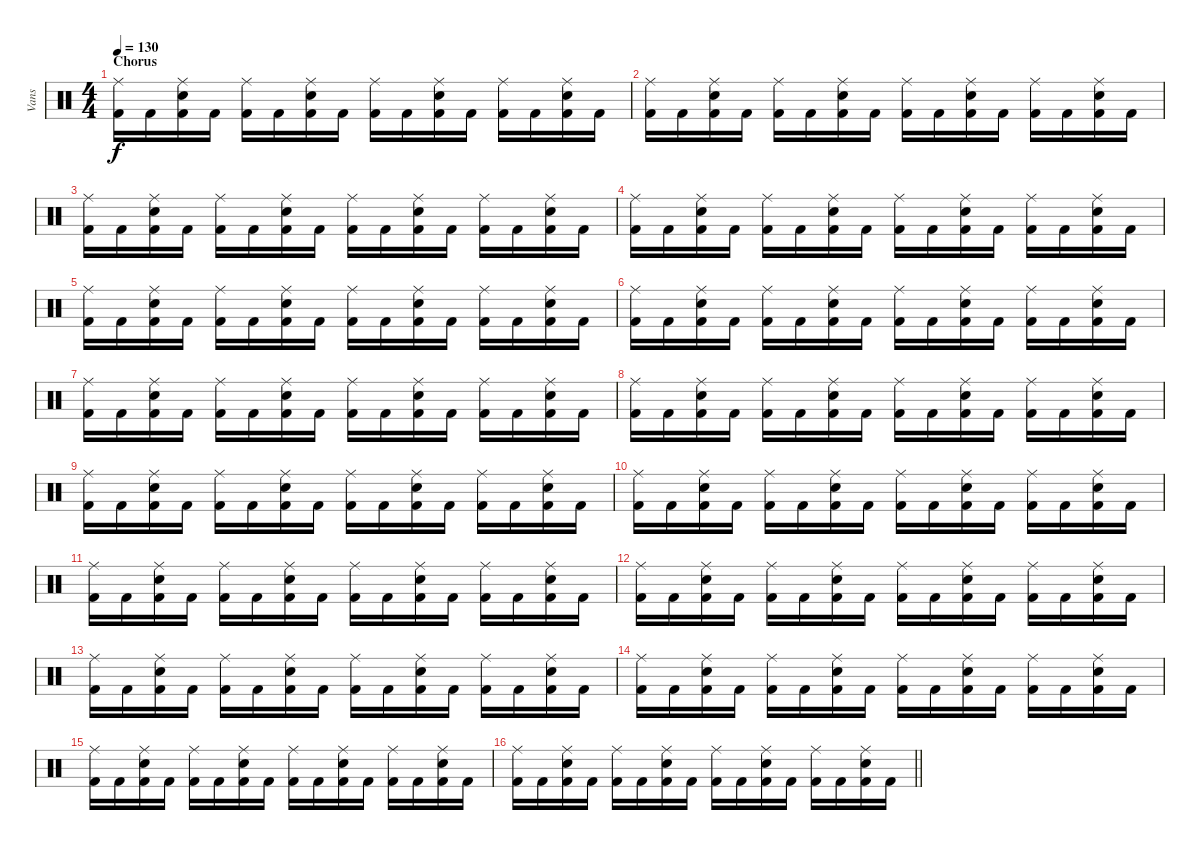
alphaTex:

\track ("Vans" "Vans") {instrument percussion}
\staff {score}
\articulation defaults
\ts (4 4)
\section ("" "Chorus")
\tempo 130
\clef neutral
\ks c
("Ride (middle)" "Kick (hit) 2").16{dy f} "Kick (hit) 2".16 ("Ride (middle)" "Kick (hit) 2" "Snare (hit) 2").16 "Kick (hit) 2".16 ("Ride (middle)" "Kick (hit) 2").16 "Kick (hit) 2".16 ("Ride (middle)" "Kick (hit) 2" "Snare (hit) 2").16 "Kick (hit) 2".16 ("Ride (middle)" "Kick (hit) 2").16 "Kick (hit) 2".16 ("Ride (middle)" "Kick (hit) 2" "Snare (hit) 2").16 "Kick (hit) 2".16 ("Ride (middle)" "Kick (hit) 2").16 "Kick (hit) 2".16 ("Ride (middle)" "Kick (hit) 2" "Snare (hit) 2").16 "Kick (hit) 2".16 |
("Ride (middle)" "Kick (hit) 2").16 "Kick (hit) 2".16 ("Ride (middle)" "Kick (hit) 2" "Snare (hit) 2").16 "Kick (hit) 2".16 ("Ride (middle)" "Kick (hit) 2").16 "Kick (hit) 2".16 ("Ride (middle)" "Kick (hit) 2" "Snare (hit) 2").16 "Kick (hit) 2".16 ("Ride (middle)" "Kick (hit) 2").16 "Kick (hit) 2".16 ("Ride (middle)" "Kick (hit) 2" "Snare (hit) 2").16 "Kick (hit) 2".16 ("Ride (middle)" "Kick (hit) 2").16 "Kick (hit) 2".16 ("Ride (middle)" "Kick (hit) 2" "Snare (hit) 2").16 "Kick (hit) 2".16 |
("Ride (middle)" "Kick (hit) 2").16 "Kick (hit) 2".16 ("Ride (middle)" "Kick (hit) 2" "Snare (hit) 2").16 "Kick (hit) 2".16 ("Ride (middle)" "Kick (hit) 2").16 "Kick (hit) 2".16 ("Ride (middle)" "Kick (hit) 2" "Snare (hit) 2").16 "Kick (hit) 2".16 ("Ride (middle)" "Kick (hit) 2").16 "Kick (hit) 2".16 ("Ride (middle)" "Kick (hit) 2" "Snare (hit) 2").16 "Kick (hit) 2".16 ("Ride (middle)" "Kick (hit) 2").16 "Kick (hit) 2".16 ("Ride (middle)" "Kick (hit) 2" "Snare (hit) 2").16 "Kick (hit) 2".16 |
("Ride (middle)" "Kick (hit) 2").16 "Kick (hit) 2".16 ("Ride (middle)" "Kick (hit) 2" "Snare (hit) 2").16 "Kick (hit) 2".16 ("Ride (middle)" "Kick (hit) 2").16 "Kick (hit) 2".16 ("Ride (middle)" "Kick (hit) 2" "Snare (hit) 2").16 "Kick (hit) 2".16 ("Ride (middle)" "Kick (hit) 2").16 "Kick (hit) 2".16 ("Ride (middle)" "Kick (hit) 2" "Snare (hit) 2").16 "Kick (hit) 2".16 ("Ride (middle)" "Kick (hit) 2").16 "Kick (hit) 2".16 ("Ride (middle)" "Kick (hit) 2" "Snare (hit) 2").16 "Kick (hit) 2".16 |
("Ride (middle)" "Kick (hit) 2").16 "Kick (hit) 2".16 ("Ride (middle)" "Kick (hit) 2" "Snare (hit) 2").16 "Kick (hit) 2".16 ("Ride (middle)" "Kick (hit) 2").16 "Kick (hit) 2".16 ("Ride (middle)" "Kick (hit) 2" "Snare (hit) 2").16 "Kick (hit) 2".16 ("Ride (middle)" "Kick (hit) 2").16 "Kick (hit) 2".16 ("Ride (middle)" "Kick (hit) 2" "Snare (hit) 2").16 "Kick (hit) 2".16 ("Ride (middle)" "Kick (hit) 2").16 "Kick (hit) 2".16 ("Ride (middle)" "Kick (hit) 2" "Snare (hit) 2").16 "Kick (hit) 2".16 |
("Ride (middle)" "Kick (hit) 2").16 "Kick (hit) 2".16 ("Ride (middle)" "Kick (hit) 2" "Snare (hit) 2").16 "Kick (hit) 2".16 ("Ride (middle)" "Kick (hit) 2").16 "Kick (hit) 2".16 ("Ride (middle)" "Kick (hit) 2" "Snare (hit) 2").16 "Kick (hit) 2".16 ("Ride (middle)" "Kick (hit) 2").16 "Kick (hit) 2".16 ("Ride (middle)" "Kick (hit) 2" "Snare (hit) 2").16 "Kick (hit) 2".16 ("Ride (middle)" "Kick (hit) 2").16 "Kick (hit) 2".16 ("Ride (middle)" "Kick (hit) 2" "Snare (hit) 2").16 "Kick (hit) 2".16 |
("Ride (middle)" "Kick (hit) 2").16 "Kick (hit) 2".16 ("Ride (middle)" "Kick (hit) 2" "Snare (hit) 2").16 "Kick (hit) 2".16 ("Ride (middle)" "Kick (hit) 2").16 "Kick (hit) 2".16 ("Ride (middle)" "Kick (hit) 2" "Snare (hit) 2").16 "Kick (hit) 2".16 ("Ride (middle)" "Kick (hit) 2").16 "Kick (hit) 2".16 ("Ride (middle)" "Kick (hit) 2" "Snare (hit) 2").16 "Kick (hit) 2".16 ("Ride (middle)" "Kick (hit) 2").16 "Kick (hit) 2".16 ("Ride (middle)" "Kick (hit) 2" "Snare (hit) 2").16 "Kick (hit) 2".16 |
("Ride (middle)" "Kick (hit) 2").16 "Kick (hit) 2".16 ("Ride (middle)" "Kick (hit) 2" "Snare (hit) 2").16 "Kick (hit) 2".16 ("Ride (middle)" "Kick (hit) 2").16 "Kick (hit) 2".16 ("Ride (middle)" "Kick (hit) 2" "Snare (hit) 2").16 "Kick (hit) 2".16 ("Ride (middle)" "Kick (hit) 2").16 "Kick (hit) 2".16 ("Ride (middle)" "Kick (hit) 2" "Snare (hit) 2").16 "Kick (hit) 2".16 ("Ride (middle)" "Kick (hit) 2").16 "Kick (hit) 2".16 ("Ride (middle)" "Kick (hit) 2" "Snare (hit) 2").16 "Kick (hit) 2".16 |
("Ride (middle)" "Kick (hit) 2").16 "Kick (hit) 2".16 ("Ride (middle)" "Kick (hit) 2" "Snare (hit) 2").16 "Kick (hit) 2".16 ("Ride (middle)" "Kick (hit) 2").16 "Kick (hit) 2".16 ("Ride (middle)" "Kick (hit) 2" "Snare (hit) 2").16 "Kick (hit) 2".16 ("Ride (middle)" "Kick (hit) 2").16 "Kick (hit) 2".16 ("Ride (middle)" "Kick (hit) 2" "Snare (hit) 2").16 "Kick (hit) 2".16 ("Ride (middle)" "Kick (hit) 2").16 "Kick (hit) 2".16 ("Ride (middle)" "Kick (hit) 2" "Snare (hit) 2").16 "Kick (hit) 2".16 |
("Ride (middle)" "Kick (hit) 2").16 "Kick (hit) 2".16 ("Ride (middle)" "Kick (hit) 2" "Snare (hit) 2").16 "Kick (hit) 2".16 ("Ride (middle)" "Kick (hit) 2").16 "Kick (hit) 2".16 ("Ride (middle)" "Kick (hit) 2" "Snare (hit) 2").16 "Kick (hit) 2".16 ("Ride (middle)" "Kick (hit) 2").16 "Kick (hit) 2".16 ("Ride (middle)" "Kick (hit) 2" "Snare (hit) 2").16 "Kick (hit) 2".16 ("Ride (middle)" "Kick (hit) 2").16 "Kick (hit) 2".16 ("Ride (middle)" "Kick (hit) 2" "Snare (hit) 2").16 "Kick (hit) 2".16 |
("Ride (middle)" "Kick (hit) 2").16 "Kick (hit) 2".16 ("Ride (middle)" "Kick (hit) 2" "Snare (hit) 2").16 "Kick (hit) 2".16 ("Ride (middle)" "Kick (hit) 2").16 "Kick (hit) 2".16 ("Ride (middle)" "Kick (hit) 2" "Snare (hit) 2").16 "Kick (hit) 2".16 ("Ride (middle)" "Kick (hit) 2").16 "Kick (hit) 2".16 ("Ride (middle)" "Kick (hit) 2" "Snare (hit) 2").16 "Kick (hit) 2".16 ("Ride (middle)" "Kick (hit) 2").16 "Kick (hit) 2".16 ("Ride (middle)" "Kick (hit) 2" "Snare (hit) 2").16 "Kick (hit) 2".16 |
("Ride (middle)" "Kick (hit) 2").16 "Kick (hit) 2".16 ("Ride (middle)" "Kick (hit) 2" "Snare (hit) 2").16 "Kick (hit) 2".16 ("Ride (middle)" "Kick (hit) 2").16 "Kick (hit) 2".16 ("Ride (middle)" "Kick (hit) 2" "Snare (hit) 2").16 "Kick (hit) 2".16 ("Ride (middle)" "Kick (hit) 2").16 "Kick (hit) 2".16 ("Ride (middle)" "Kick (hit) 2" "Snare (hit) 2").16 "Kick (hit) 2".16 ("Ride (middle)" "Kick (hit) 2").16 "Kick (hit) 2".16 ("Ride (middle)" "Kick (hit) 2" "Snare (hit) 2").16 "Kick (hit) 2".16 |
("Ride (middle)" "Kick (hit) 2").16 "Kick (hit) 2".16 ("Ride (middle)" "Kick (hit) 2" "Snare (hit) 2").16 "Kick (hit) 2".16 ("Ride (middle)" "Kick (hit) 2").16 "Kick (hit) 2".16 ("Ride (middle)" "Kick (hit) 2" "Snare (hit) 2").16 "Kick (hit) 2".16 ("Ride (middle)" "Kick (hit) 2").16 "Kick (hit) 2".16 ("Ride (middle)" "Kick (hit) 2" "Snare (hit) 2").16 "Kick (hit) 2".16 ("Ride (middle)" "Kick (hit) 2").16 "Kick (hit) 2".16 ("Ride (middle)" "Kick (hit) 2" "Snare (hit) 2").16 "Kick (hit) 2".16 |
("Ride (middle)" "Kick (hit) 2").16 "Kick (hit) 2".16 ("Ride (middle)" "Kick (hit) 2" "Snare (hit) 2").16 "Kick (hit) 2".16 ("Ride (middle)" "Kick (hit) 2").16 "Kick (hit) 2".16 ("Ride (middle)" "Kick (hit) 2" "Snare (hit) 2").16 "Kick (hit) 2".16 ("Ride (middle)" "Kick (hit) 2").16 "Kick (hit) 2".16 ("Ride (middle)" "Kick (hit) 2" "Snare (hit) 2").16 "Kick (hit) 2".16 ("Ride (middle)" "Kick (hit) 2").16 "Kick (hit) 2".16 ("Ride (middle)" "Kick (hit) 2" "Snare (hit) 2").16 "Kick (hit) 2".16 |
("Ride (middle)" "Kick (hit) 2").16 "Kick (hit) 2".16 ("Ride (middle)" "Kick (hit) 2" "Snare (hit) 2").16 "Kick (hit) 2".16 ("Ride (middle)" "Kick (hit) 2").16 "Kick (hit) 2".16 ("Ride (middle)" "Kick (hit) 2" "Snare (hit) 2").16 "Kick (hit) 2".16 ("Ride (middle)" "Kick (hit) 2").16 "Kick (hit) 2".16 ("Ride (middle)" "Kick (hit) 2" "Snare (hit) 2").16 "Kick (hit) 2".16 ("Ride (middle)" "Kick (hit) 2").16 "Kick (hit) 2".16 ("Ride (middle)" "Kick (hit) 2" "Snare (hit) 2").16 "Kick (hit) 2".16 |
\barLineRight lightlight
("Ride (middle)" "Kick (hit) 2").16 "Kick (hit) 2".16 ("Ride (middle)" "Kick (hit) 2" "Snare (hit) 2").16 "Kick (hit) 2".16 ("Ride (middle)" "Kick (hit) 2").16 "Kick (hit) 2".16 ("Ride (middle)" "Kick (hit) 2" "Snare (hit) 2").16 "Kick (hit) 2".16 ("Ride (middle)" "Kick (hit) 2").16 "Kick (hit) 2".16 ("Ride (middle)" "Kick (hit) 2" "Snare (hit) 2").16 "Kick (hit) 2".16 ("Ride (middle)" "Kick (hit) 2").16 "Kick (hit) 2".16 ("Ride (middle)" "Kick (hit) 2" "Snare (hit) 2").16 "Kick (hit) 2".16
